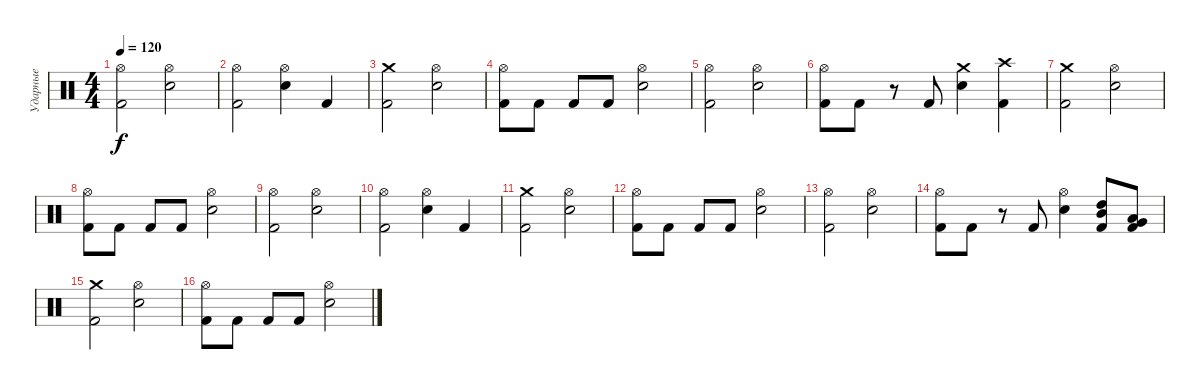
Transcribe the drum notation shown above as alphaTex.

\track ("Ударные" "Ударные") {instrument percussion}
\staff {score}
\articulation defaults
\ts (4 4)
\tempo 120
\clef neutral
\ks c
("Hi-Hat (open)" "Kick (hit) 2").2{dy f} ("Hi-Hat (open)" "Electric Snare (hit)").2 |
("Hi-Hat (open)" "Kick (hit) 2").2 ("Hi-Hat (open)" "Electric Snare (hit)").4 "Kick (hit) 2".4 |
("Crash medium (hit)" "Kick (hit) 2").2 ("Hi-Hat (open)" "Electric Snare (hit)").2 |
("Hi-Hat (open)" "Kick (hit) 2").8 "Kick (hit) 2".8 "Kick (hit) 2".8 "Kick (hit) 2".8 ("Hi-Hat (open)" "Electric Snare (hit)").2 |
("Hi-Hat (open)" "Kick (hit) 2").2 ("Hi-Hat (open)" "Electric Snare (hit)").2 |
("Hi-Hat (open)" "Kick (hit) 2").8 "Kick (hit) 2".8 r.8 "Kick (hit) 2".8 ("Crash medium (hit)" "Electric Snare (hit)").4 ("Crash high (hit)" "Kick (hit) 2").4 |
("Crash medium (hit)" "Kick (hit) 2").2 ("Hi-Hat (open)" "Electric Snare (hit)").2 |
("Hi-Hat (open)" "Kick (hit) 2").8 "Kick (hit) 2".8 "Kick (hit) 2".8 "Kick (hit) 2".8 ("Hi-Hat (open)" "Electric Snare (hit)").2 |
("Hi-Hat (open)" "Kick (hit) 2").2 ("Hi-Hat (open)" "Electric Snare (hit)").2 |
("Hi-Hat (open)" "Kick (hit) 2").2 ("Hi-Hat (open)" "Electric Snare (hit)").4 "Kick (hit) 2".4 |
("Crash medium (hit)" "Kick (hit) 2").2 ("Hi-Hat (open)" "Electric Snare (hit)").2 |
("Hi-Hat (open)" "Kick (hit) 2").8 "Kick (hit) 2".8 "Kick (hit) 2".8 "Kick (hit) 2".8 ("Hi-Hat (open)" "Electric Snare (hit)").2 |
("Hi-Hat (open)" "Kick (hit) 2").2 ("Hi-Hat (open)" "Electric Snare (hit)").2 |
("Hi-Hat (open)" "Kick (hit) 2").8 "Kick (hit) 2".8 r.8 "Kick (hit) 2".8 ("Hi-Hat (open)" "Electric Snare (hit)").4 ("High Tom (hit)" "Mid Tom (hit)" "Kick (hit) 2").8 ("Low Tom (hit)" "Very Low Tom (hit)" "Kick (hit) 2").8 |
("Crash medium (hit)" "Kick (hit) 2").2 ("Hi-Hat (open)" "Electric Snare (hit)").2 |
("Hi-Hat (open)" "Kick (hit) 2").8 "Kick (hit) 2".8 "Kick (hit) 2".8 "Kick (hit) 2".8 ("Hi-Hat (open)" "Electric Snare (hit)").2
